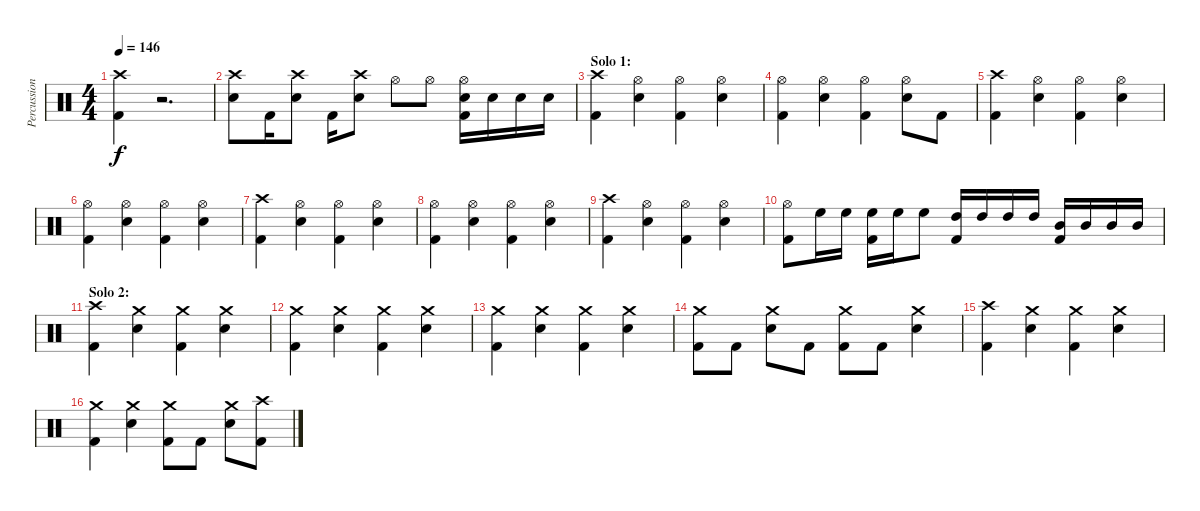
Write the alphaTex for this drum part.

\track ("Percussion" "Percussion") {instrument percussion}
\staff {score}
\articulation defaults
\ts (4 4)
\tempo 146
\clef neutral
\ks c
("Crash high (hit)" "Kick (hit) 2").4{dy f} r.2{d} |
("Crash high (hit)" "Snare (hit) 2").8 "Kick (hit) 2".16 ("Crash high (hit)" "Snare (hit) 2").8 "Kick (hit) 2".16 ("Crash high (hit)" "Snare (hit) 2").8 "Hi-Hat (open)".8 "Hi-Hat (open)".8 ("Hi-Hat (open)" "Snare (hit) 2" "Kick (hit) 2").16 "Snare (hit) 2".16 "Snare (hit) 2".16 "Snare (hit) 2".16 |
\section ("" "Solo 1:")
("Crash high (hit)" "Kick (hit) 2").4 ("Hi-Hat (open)" "Snare (hit) 2").4 ("Hi-Hat (open)" "Kick (hit) 2").4 ("Hi-Hat (open)" "Snare (hit) 2").4 |
("Hi-Hat (open)" "Kick (hit) 2").4 ("Hi-Hat (open)" "Snare (hit) 2").4 ("Hi-Hat (open)" "Kick (hit) 2").4 ("Hi-Hat (open)" "Snare (hit) 2").8 "Kick (hit) 2".8 |
("Crash high (hit)" "Kick (hit) 2").4 ("Hi-Hat (open)" "Snare (hit) 2").4 ("Hi-Hat (open)" "Kick (hit) 2").4 ("Hi-Hat (open)" "Snare (hit) 2").4 |
("Hi-Hat (open)" "Kick (hit) 2").4 ("Hi-Hat (open)" "Snare (hit) 2").4 ("Hi-Hat (open)" "Kick (hit) 2").4 ("Hi-Hat (open)" "Snare (hit) 2").4 |
("Crash high (hit)" "Kick (hit) 2").4 ("Hi-Hat (open)" "Snare (hit) 2").4 ("Hi-Hat (open)" "Kick (hit) 2").4 ("Hi-Hat (open)" "Snare (hit) 2").4 |
("Hi-Hat (open)" "Kick (hit) 2").4 ("Hi-Hat (open)" "Snare (hit) 2").4 ("Hi-Hat (open)" "Kick (hit) 2").4 ("Hi-Hat (open)" "Snare (hit) 2").4 |
("Crash high (hit)" "Kick (hit) 2").4 ("Hi-Hat (open)" "Snare (hit) 2").4 ("Hi-Hat (open)" "Kick (hit) 2").4 ("Hi-Hat (open)" "Snare (hit) 2").4 |
("Hi-Hat (open)" "Kick (hit) 2").8 "High Floor Tom (hit)".16 "High Floor Tom (hit)".16 ("High Floor Tom (hit)" "Kick (hit) 2").16 "High Floor Tom (hit)".16 "High Floor Tom (hit)".8 ("High Tom (hit)" "Kick (hit) 2").16 "High Tom (hit)".16 "High Tom (hit)".16 "High Tom (hit)".16 ("Mid Tom (hit)" "Kick (hit) 2").16 "Mid Tom (hit)".16 "Mid Tom (hit)".16 "Mid Tom (hit)".16 |
\section ("" "Solo 2:")
("Crash high (hit)" "Kick (hit) 2").4 ("Crash medium (hit)" "Snare (hit) 2").4 ("Crash medium (hit)" "Kick (hit) 2").4 ("Crash medium (hit)" "Snare (hit) 2").4 |
("Crash medium (hit)" "Kick (hit) 2").4 ("Crash medium (hit)" "Snare (hit) 2").4 ("Crash medium (hit)" "Kick (hit) 2").4 ("Crash medium (hit)" "Snare (hit) 2").4 |
("Crash medium (hit)" "Kick (hit) 2").4 ("Crash medium (hit)" "Snare (hit) 2").4 ("Crash medium (hit)" "Kick (hit) 2").4 ("Crash medium (hit)" "Snare (hit) 2").4 |
("Crash medium (hit)" "Kick (hit) 2").8 "Kick (hit) 2".8 ("Crash medium (hit)" "Snare (hit) 2").8 "Kick (hit) 2".8 ("Crash medium (hit)" "Kick (hit) 2").8 "Kick (hit) 2".8 ("Crash medium (hit)" "Snare (hit) 2").4 |
("Crash high (hit)" "Kick (hit) 2").4 ("Crash medium (hit)" "Snare (hit) 2").4 ("Crash medium (hit)" "Kick (hit) 2").4 ("Crash medium (hit)" "Snare (hit) 2").4 |
("Crash medium (hit)" "Kick (hit) 2").4 ("Crash medium (hit)" "Snare (hit) 2").4 ("Crash medium (hit)" "Kick (hit) 2").8 "Kick (hit) 2".8 ("Crash medium (hit)" "Snare (hit) 2").8 ("Crash high (hit)" "Kick (hit) 2").8
